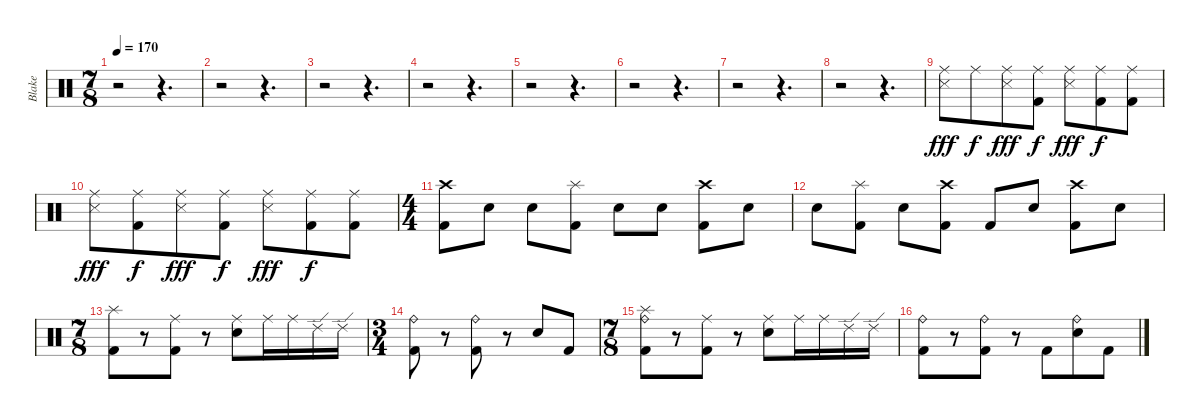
\track ("Blake" "Blake") {instrument percussion}
\staff {score}
\articulation defaults
\ts (7 8)
\tempo 170
\clef neutral
\ks c
r.2{dy fff} r.4{d} |
r.2 r.4{d} |
r.2 r.4{d} |
r.2 r.4{d} |
r.2 r.4{d} |
r.2 r.4{d} |
r.2 r.4{d} |
r.2 r.4{d} |
("Ride (middle)" "Snare (side stick) 3").8 "Ride (middle)".8{dy f} ("Ride (middle)" "Snare (side stick) 3").8{dy fff} ("Ride (middle)" "Kick (hit) 2").8{dy f} ("Ride (middle)" "Snare (side stick) 3").8{dy fff} ("Ride (middle)" "Kick (hit) 2").8{dy f} ("Ride (middle)" "Kick (hit) 2").8 |
("Ride (middle)" "Snare (side stick) 3").8{dy fff} ("Ride (middle)" "Kick (hit) 2").8{dy f} ("Ride (middle)" "Snare (side stick) 3").8{dy fff} ("Ride (middle)" "Kick (hit) 2").8{dy f} ("Ride (middle)" "Snare (side stick) 3").8{dy fff} ("Ride (middle)" "Kick (hit) 2").8{dy f} ("Ride (middle)" "Kick (hit) 2").8 |
\ts (4 4)
("Crash high (hit)" "Kick (hit) 2").8 "Snare (hit) 2".8 "Snare (hit) 2".8 ("Splash (hit)" "Kick (hit) 2").8 "Snare (hit) 2".8 "Snare (hit) 2".8 ("Crash high (hit)" "Kick (hit) 2").8 "Snare (hit) 2".8 |
"Snare (hit) 2".8 ("Splash (hit)" "Kick (hit) 2").8 "Snare (hit) 2".8 ("Crash high (hit)" "Kick (hit) 2").8 "Kick (hit) 2".8 "Snare (hit) 2".8 ("Crash high (hit)" "Kick (hit) 2").8 "Snare (hit) 2".8 |
\ts (7 8)
("Splash (hit)" "Kick (hit) 2").8 r.8 ("Ride (middle)" "Kick (hit) 2").8 r.8 ("Ride (middle)" "Snare (hit) 2").8 "Ride (middle)".16 "Ride (middle)".16 "Ride (edge) 2".16 "Ride (edge) 2".16 |
\ts (3 4)
("Ride (bell)" "Kick (hit) 2").8 r.8 ("Ride (bell)" "Kick (hit) 2").8 r.8 "Snare (hit) 2".8 "Kick (hit) 2".8 |
\ts (7 8)
("Splash (hit)" "Ride (bell)" "Kick (hit) 2").8 r.8 ("Ride (middle)" "Kick (hit) 2").8 r.8 ("Ride (middle)" "Snare (hit) 2").8 "Ride (middle)".16 "Ride (middle)".16 "Ride (edge) 2".16 "Ride (edge) 2".16 |
("Ride (bell)" "Kick (hit) 2").8 r.8 ("Ride (bell)" "Kick (hit) 2").8 r.8 "Kick (hit) 2".8 ("Ride (bell)" "Snare (hit) 2").8 "Kick (hit) 2".8
